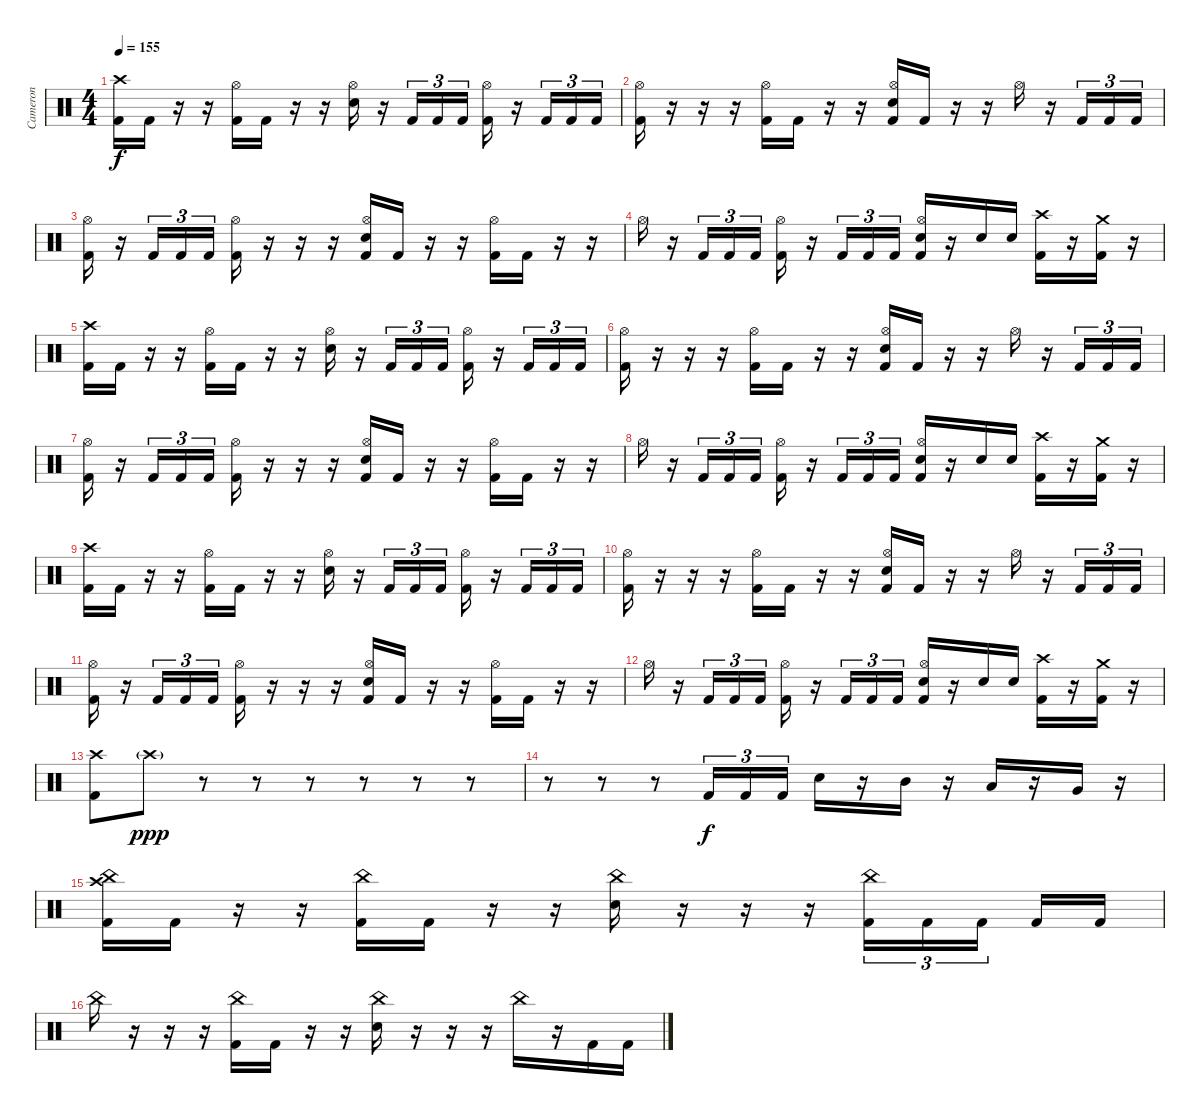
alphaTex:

\track ("Cameron" "Cameron") {instrument percussion}
\staff {score}
\articulation defaults
\ts (4 4)
\tempo 155
\clef neutral
\ks c
("Crash high (hit)" "Kick (hit) 2").16{dy f} "Kick (hit) 2".16 r.16 r.16 ("Hi-Hat (open)" "Kick (hit) 2").16 "Kick (hit) 2".16 r.16 r.16 ("Hi-Hat (open)" "Snare (hit) 2").16 r.16 "Kick (hit) 2".16{tu (3 2)} "Kick (hit) 2".16{tu (3 2)} "Kick (hit) 2".16{tu (3 2)} ("Hi-Hat (open)" "Kick (hit) 2").16 r.16 "Kick (hit) 2".16{tu (3 2)} "Kick (hit) 2".16{tu (3 2)} "Kick (hit) 2".16{tu (3 2)} |
("Hi-Hat (open)" "Kick (hit) 2").16 r.16 r.16 r.16 ("Hi-Hat (open)" "Kick (hit) 2").16 "Kick (hit) 2".16 r.16 r.16 ("Hi-Hat (open)" "Snare (hit) 2" "Kick (hit) 2").16 "Kick (hit) 2".16 r.16 r.16 "Hi-Hat (open)".16 r.16 "Kick (hit) 2".16{tu (3 2)} "Kick (hit) 2".16{tu (3 2)} "Kick (hit) 2".16{tu (3 2)} |
("Hi-Hat (open)" "Kick (hit) 2").16 r.16 "Kick (hit) 2".16{tu (3 2)} "Kick (hit) 2".16{tu (3 2)} "Kick (hit) 2".16{tu (3 2)} ("Hi-Hat (open)" "Kick (hit) 2").16 r.16 r.16 r.16 ("Hi-Hat (open)" "Snare (hit) 2" "Kick (hit) 2").16 "Kick (hit) 2".16 r.16 r.16 ("Hi-Hat (open)" "Kick (hit) 2").16 "Kick (hit) 2".16 r.16 r.16 |
"Hi-Hat (open)".16 r.16 "Kick (hit) 2".16{tu (3 2)} "Kick (hit) 2".16{tu (3 2)} "Kick (hit) 2".16{tu (3 2)} ("Hi-Hat (open)" "Kick (hit) 2").16 r.16 "Kick (hit) 2".16{tu (3 2)} "Kick (hit) 2".16{tu (3 2)} "Kick (hit) 2".16{tu (3 2)} ("Hi-Hat (open)" "Snare (hit) 2" "Kick (hit) 2").16 r.16 "Snare (hit) 2".16 "Snare (hit) 2".16 ("Crash high (hit)" "Kick (hit) 2").16 r.16 ("Crash medium (hit)" "Kick (hit) 2").16 r.16 |
("Crash high (hit)" "Kick (hit) 2").16 "Kick (hit) 2".16 r.16 r.16 ("Hi-Hat (open)" "Kick (hit) 2").16 "Kick (hit) 2".16 r.16 r.16 ("Hi-Hat (open)" "Snare (hit) 2").16 r.16 "Kick (hit) 2".16{tu (3 2)} "Kick (hit) 2".16{tu (3 2)} "Kick (hit) 2".16{tu (3 2)} ("Hi-Hat (open)" "Kick (hit) 2").16 r.16 "Kick (hit) 2".16{tu (3 2)} "Kick (hit) 2".16{tu (3 2)} "Kick (hit) 2".16{tu (3 2)} |
("Hi-Hat (open)" "Kick (hit) 2").16 r.16 r.16 r.16 ("Hi-Hat (open)" "Kick (hit) 2").16 "Kick (hit) 2".16 r.16 r.16 ("Hi-Hat (open)" "Snare (hit) 2" "Kick (hit) 2").16 "Kick (hit) 2".16 r.16 r.16 "Hi-Hat (open)".16 r.16 "Kick (hit) 2".16{tu (3 2)} "Kick (hit) 2".16{tu (3 2)} "Kick (hit) 2".16{tu (3 2)} |
("Hi-Hat (open)" "Kick (hit) 2").16 r.16 "Kick (hit) 2".16{tu (3 2)} "Kick (hit) 2".16{tu (3 2)} "Kick (hit) 2".16{tu (3 2)} ("Hi-Hat (open)" "Kick (hit) 2").16 r.16 r.16 r.16 ("Hi-Hat (open)" "Snare (hit) 2" "Kick (hit) 2").16 "Kick (hit) 2".16 r.16 r.16 ("Hi-Hat (open)" "Kick (hit) 2").16 "Kick (hit) 2".16 r.16 r.16 |
"Hi-Hat (open)".16 r.16 "Kick (hit) 2".16{tu (3 2)} "Kick (hit) 2".16{tu (3 2)} "Kick (hit) 2".16{tu (3 2)} ("Hi-Hat (open)" "Kick (hit) 2").16 r.16 "Kick (hit) 2".16{tu (3 2)} "Kick (hit) 2".16{tu (3 2)} "Kick (hit) 2".16{tu (3 2)} ("Hi-Hat (open)" "Snare (hit) 2" "Kick (hit) 2").16 r.16 "Snare (hit) 2".16 "Snare (hit) 2".16 ("Crash high (hit)" "Kick (hit) 2").16 r.16 ("Crash medium (hit)" "Kick (hit) 2").16 r.16 |
("Crash high (hit)" "Kick (hit) 2").16 "Kick (hit) 2".16 r.16 r.16 ("Hi-Hat (open)" "Kick (hit) 2").16 "Kick (hit) 2".16 r.16 r.16 ("Hi-Hat (open)" "Snare (hit) 2").16 r.16 "Kick (hit) 2".16{tu (3 2)} "Kick (hit) 2".16{tu (3 2)} "Kick (hit) 2".16{tu (3 2)} ("Hi-Hat (open)" "Kick (hit) 2").16 r.16 "Kick (hit) 2".16{tu (3 2)} "Kick (hit) 2".16{tu (3 2)} "Kick (hit) 2".16{tu (3 2)} |
("Hi-Hat (open)" "Kick (hit) 2").16 r.16 r.16 r.16 ("Hi-Hat (open)" "Kick (hit) 2").16 "Kick (hit) 2".16 r.16 r.16 ("Hi-Hat (open)" "Snare (hit) 2" "Kick (hit) 2").16 "Kick (hit) 2".16 r.16 r.16 "Hi-Hat (open)".16 r.16 "Kick (hit) 2".16{tu (3 2)} "Kick (hit) 2".16{tu (3 2)} "Kick (hit) 2".16{tu (3 2)} |
("Hi-Hat (open)" "Kick (hit) 2").16 r.16 "Kick (hit) 2".16{tu (3 2)} "Kick (hit) 2".16{tu (3 2)} "Kick (hit) 2".16{tu (3 2)} ("Hi-Hat (open)" "Kick (hit) 2").16 r.16 r.16 r.16 ("Hi-Hat (open)" "Snare (hit) 2" "Kick (hit) 2").16 "Kick (hit) 2".16 r.16 r.16 ("Hi-Hat (open)" "Kick (hit) 2").16 "Kick (hit) 2".16 r.16 r.16 |
"Hi-Hat (open)".16 r.16 "Kick (hit) 2".16{tu (3 2)} "Kick (hit) 2".16{tu (3 2)} "Kick (hit) 2".16{tu (3 2)} ("Hi-Hat (open)" "Kick (hit) 2").16 r.16 "Kick (hit) 2".16{tu (3 2)} "Kick (hit) 2".16{tu (3 2)} "Kick (hit) 2".16{tu (3 2)} ("Hi-Hat (open)" "Snare (hit) 2" "Kick (hit) 2").16 r.16 "Snare (hit) 2".16 "Snare (hit) 2".16 ("Crash high (hit)" "Kick (hit) 2").16 r.16 ("Crash medium (hit)" "Kick (hit) 2").16 r.16 |
("Crash high (hit)" "Kick (hit) 2").8 "Crash high (hit)"{g}.8{dy ppp} r.8 r.8 r.8 r.8 r.8 r.8 |
r.8 r.8 r.8 "Kick (hit) 2".16{tu (3 2) dy f} "Kick (hit) 2".16{tu (3 2)} "Kick (hit) 2".16{tu (3 2)} "Snare (hit) 2".16 r.16 "Mid Tom (hit)".16 r.16 "Low Tom (hit)".16 r.16 "Very Low Tom (hit)".16 r.16 |
("Crash high (hit)" "China (hit)" "Kick (hit) 2").16 "Kick (hit) 2".16 r.16 r.16 ("China (hit)" "Kick (hit) 2").16 "Kick (hit) 2".16 r.16 r.16 ("China (hit)" "Snare (hit) 2").16 r.16 r.16 r.16 ("China (hit)" "Kick (hit) 2").16{tu (3 2)} "Kick (hit) 2".16{tu (3 2)} "Kick (hit) 2".16{tu (3 2) beam splitsecondary} "Kick (hit) 2".16 "Kick (hit) 2".16 |
"China (hit)".16 r.16 r.16 r.16 ("China (hit)" "Kick (hit) 2").16 "Kick (hit) 2".16 r.16 r.16 ("China (hit)" "Snare (hit) 2").16 r.16 r.16 r.16 "China (hit)".16 r.16 "Kick (hit) 2".16 "Kick (hit) 2".16
